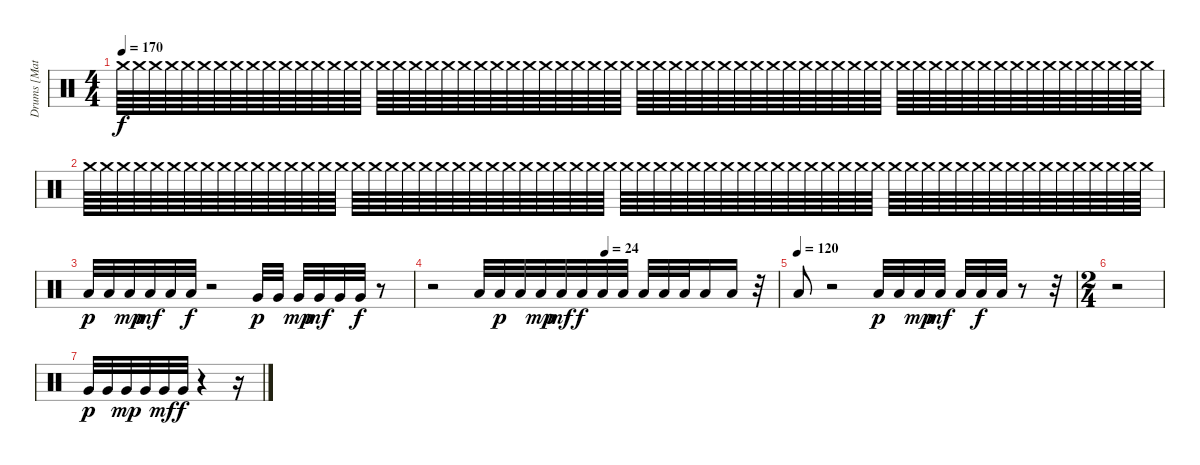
\track ("Drums [Matt]" "Drums [Mat") {instrument percussion}
\staff {score}
\articulation defaults
\ts (4 4)
\tempo 170
\clef neutral
\ks c "Crash medium (hit)".64{dy f} "Crash medium (hit)".64 "Crash medium (hit)".64 "Crash medium (hit)".64 "Crash medium (hit)".64 "Crash medium (hit)".64 "Crash medium (hit)".64 "Crash medium (hit)".64 "Crash medium (hit)".64 "Crash medium (hit)".64 "Crash medium (hit)".64 "Crash medium (hit)".64 "Crash medium (hit)".64 "Crash medium (hit)".64 "Crash medium (hit)".64 "Crash medium (hit)".64 "Crash medium (hit)".64 "Crash medium (hit)".64 "Crash medium (hit)".64 "Crash medium (hit)".64 "Crash medium (hit)".64 "Crash medium (hit)".64 "Crash medium (hit)".64 "Crash medium (hit)".64 "Crash medium (hit)".64 "Crash medium (hit)".64 "Crash medium (hit)".64 "Crash medium (hit)".64 "Crash medium (hit)".64 "Crash medium (hit)".64 "Crash medium (hit)".64 "Crash medium (hit)".64 "Crash medium (hit)".64 "Crash medium (hit)".64 "Crash medium (hit)".64 "Crash medium (hit)".64 "Crash medium (hit)".64 "Crash medium (hit)".64 "Crash medium (hit)".64 "Crash medium (hit)".64 "Crash medium (hit)".64 "Crash medium (hit)".64 "Crash medium (hit)".64 "Crash medium (hit)".64 "Crash medium (hit)".64 "Crash medium (hit)".64 "Crash medium (hit)".64 "Crash medium (hit)".64 "Crash medium (hit)".64 "Crash medium (hit)".64 "Crash medium (hit)".64 "Crash medium (hit)".64 "Crash medium (hit)".64 "Crash medium (hit)".64 "Crash medium (hit)".64 "Crash medium (hit)".64 "Crash medium (hit)".64 "Crash medium (hit)".64 "Crash medium (hit)".64 "Crash medium (hit)".64 "Crash medium (hit)".64 "Crash medium (hit)".64 "Crash medium (hit)".64 "Crash medium (hit)".64
|
"Crash medium (hit)".64 "Crash medium (hit)".64 "Crash medium (hit)".64 "Crash medium (hit)".64 "Crash medium (hit)".64 "Crash medium (hit)".64 "Crash medium (hit)".64 "Crash medium (hit)".64 "Crash medium (hit)".64 "Crash medium (hit)".64 "Crash medium (hit)".64 "Crash medium (hit)".64 "Crash medium (hit)".64 "Crash medium (hit)".64 "Crash medium (hit)".64 "Crash medium (hit)".64 "Crash medium (hit)".64 "Crash medium (hit)".64 "Crash medium (hit)".64 "Crash medium (hit)".64 "Crash medium (hit)".64 "Crash medium (hit)".64 "Crash medium (hit)".64 "Crash medium (hit)".64 "Crash medium (hit)".64 "Crash medium (hit)".64 "Crash medium (hit)".64 "Crash medium (hit)".64 "Crash medium (hit)".64 "Crash medium (hit)".64 "Crash medium (hit)".64 "Crash medium (hit)".64 "Crash medium (hit)".64 "Crash medium (hit)".64 "Crash medium (hit)".64 "Crash medium (hit)".64 "Crash medium (hit)".64 "Crash medium (hit)".64 "Crash medium (hit)".64 "Crash medium (hit)".64 "Crash medium (hit)".64 "Crash medium (hit)".64 "Crash medium (hit)".64 "Crash medium (hit)".64 "Crash medium (hit)".64 "Crash medium (hit)".64 "Crash medium (hit)".64 "Crash medium (hit)".64 "Crash medium (hit)".64 "Crash medium (hit)".64 "Crash medium (hit)".64 "Crash medium (hit)".64 "Crash medium (hit)".64 "Crash medium (hit)".64 "Crash medium (hit)".64 "Crash medium (hit)".64 "Crash medium (hit)".64 "Crash medium (hit)".64 "Crash medium (hit)".64 "Crash medium (hit)".64 "Crash medium (hit)".64 "Crash medium (hit)".64 "Crash medium (hit)".64 "Crash medium (hit)".64 |
"Low Tom (hit)".32{dy p volume 14} "Low Tom (hit)".32 "Low Tom (hit)".32{dy mp} "Low Tom (hit)".32{dy mf} "Low Tom (hit)".32 "Low Tom (hit)".32{dy f} r.2 "Very Low Tom (hit)".32{dy p} "Very Low Tom (hit)".32 "Very Low Tom (hit)".32{dy mp} "Very Low Tom (hit)".32{dy mf} "Very Low Tom (hit)".32 "Very Low Tom (hit)".32{dy f} r.8 |
\tempo (24 0.5)
r.2 "Low Floor Tom (hit)".32 "Low Floor Tom (hit)".32{dy p} "Low Floor Tom (hit)".32 "Low Floor Tom (hit)".32{dy mp} "Low Floor Tom (hit)".32{dy mf} "Low Floor Tom (hit)".32{dy f} "Low Floor Tom (hit)".32 "Low Floor Tom (hit)".32 "Low Floor Tom (hit)".32 "Low Floor Tom (hit)".32 "Low Floor Tom (hit)".32 "Low Floor Tom (hit)".16 "Low Floor Tom (hit)".16 r.32 |
\tempo (120)
"Low Floor Tom (hit)".8 r.2 "Low Floor Tom (hit)".32{dy p} "Low Floor Tom (hit)".32 "Low Floor Tom (hit)".32{dy mp} "Low Floor Tom (hit)".32{dy mf} "Low Floor Tom (hit)".32 "Low Floor Tom (hit)".32{dy f} "Low Floor Tom (hit)".32 r.8 r.32 |
\ts (2 4)
r.2 |
"Very Low Tom (hit)".32{dy p} "Very Low Tom (hit)".32 "Very Low Tom (hit)".32{dy mp} "Very Low Tom (hit)".32 "Very Low Tom (hit)".32{dy mf} "Very Low Tom (hit)".32{dy f} r.4 r.16
